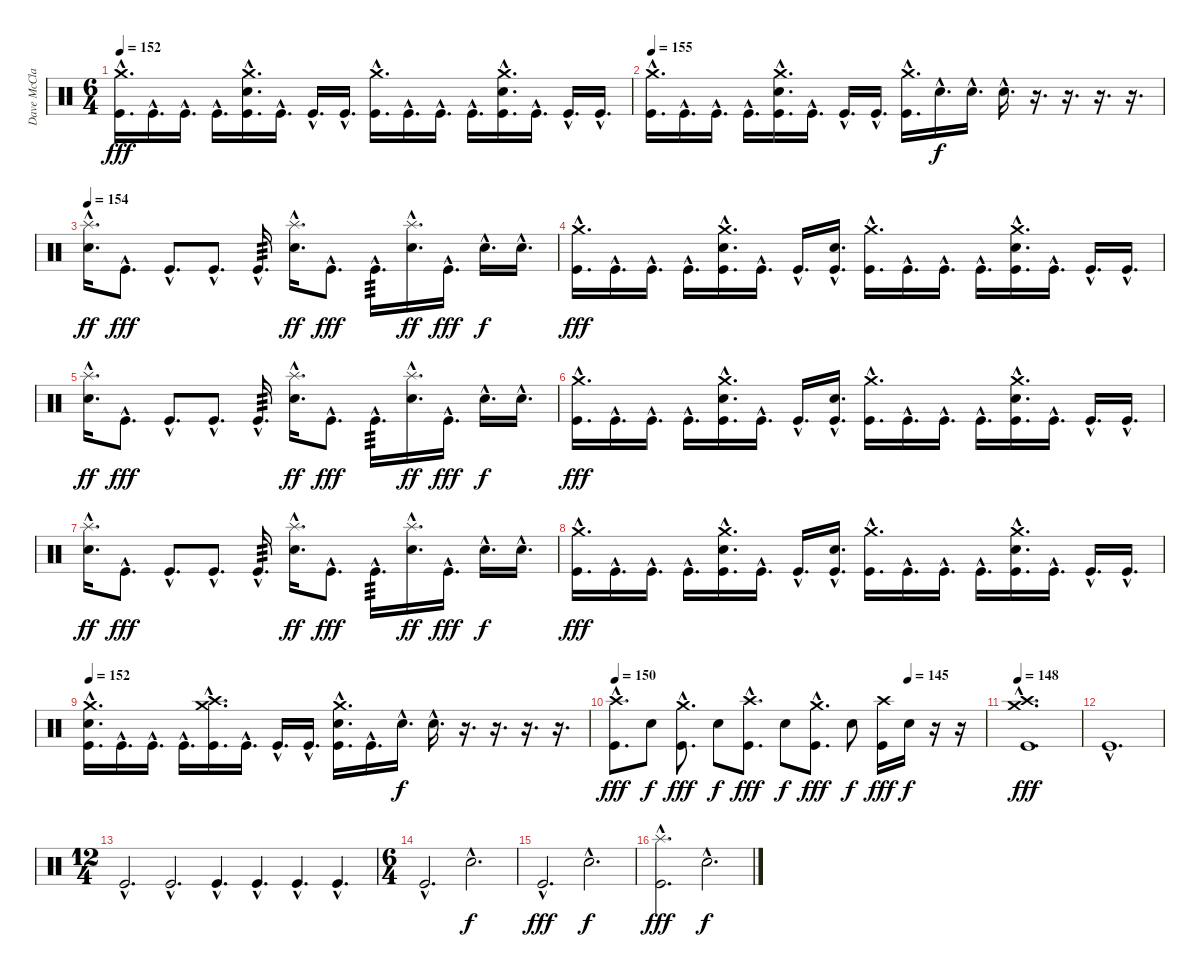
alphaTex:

\track ("Dave McClain" "Dave McCla") {instrument percussion}
\staff {score}
\articulation defaults
\ts (6 4)
\tempo 152
\clef neutral
\ks c
("Crash medium (hit)"{hac} "Kick (hit)"{hac}).16{d dy fff} "Kick (hit)"{hac}.16{d} "Kick (hit)"{hac}.16{d} "Kick (hit)"{hac}.16{d} ("Crash medium (hit)"{hac} "Electric Snare (hit)"{hac} "Kick (hit)"{hac}).16{d} "Kick (hit)"{hac}.16{d} "Kick (hit)"{hac}.16{d} "Kick (hit)"{hac}.16{d} ("Crash medium (hit)"{hac} "Kick (hit)"{hac}).16{d} "Kick (hit)"{hac}.16{d} "Kick (hit)"{hac}.16{d} "Kick (hit)"{hac}.16{d} ("Crash medium (hit)"{hac} "Electric Snare (hit)"{hac} "Kick (hit)"{hac}).16{d} "Kick (hit)"{hac}.16{d} "Kick (hit)"{hac}.16{d} "Kick (hit)"{hac}.16{d} |
\tempo 155
("Crash medium (hit)"{hac} "Kick (hit)"{hac}).16{d} "Kick (hit)"{hac}.16{d} "Kick (hit)"{hac}.16{d} "Kick (hit)"{hac}.16{d} ("Crash medium (hit)"{hac} "Electric Snare (hit)"{hac} "Kick (hit)"{hac}).16{d} "Kick (hit)"{hac}.16{d} "Kick (hit)"{hac}.16{d} "Kick (hit)"{hac}.16{d} ("Crash medium (hit)"{hac} "Kick (hit)"{hac}).16{d} "Electric Snare (hit)"{hac}.16{d dy f} "Electric Snare (hit)"{hac}.16{d} "Electric Snare (hit)"{hac}.16{d} r.16{d} r.16{d} r.16{d} r.16{d} |
\tempo 154
("Splash (hit)"{hac} "Electric Snare (hit)"{hac}).16{d dy ff} "Kick (hit)"{hac}.8{d dy fff} "Kick (hit)"{hac}.8{d} "Kick (hit)"{hac}.8{d} "Kick (hit)"{hac}.16{d tp 3} ("Splash (hit)"{hac} "Electric Snare (hit)"{hac}).16{d dy ff} "Kick (hit)"{hac}.8{d dy fff} "Kick (hit)"{hac}.16{d tp 3} ("Splash (hit)"{hac} "Electric Snare (hit)"{hac}).16{d dy ff} "Kick (hit)"{hac}.16{d dy fff} "Electric Snare (hit)"{hac}.16{d dy f} "Electric Snare (hit)"{hac}.16{d} |
("Crash medium (hit)"{hac} "Kick (hit)"{hac}).16{d dy fff} "Kick (hit)"{hac}.16{d} "Kick (hit)"{hac}.16{d} "Kick (hit)"{hac}.16{d} ("Crash medium (hit)"{hac} "Electric Snare (hit)"{hac} "Kick (hit)"{hac}).16{d} "Kick (hit)"{hac}.16{d} "Kick (hit)"{hac}.16{d} ("Electric Snare (hit)"{hac} "Kick (hit)"{hac}).16{d} ("Crash medium (hit)"{hac} "Kick (hit)"{hac}).16{d} "Kick (hit)"{hac}.16{d} "Kick (hit)"{hac}.16{d} "Kick (hit)"{hac}.16{d} ("Crash medium (hit)"{hac} "Electric Snare (hit)"{hac} "Kick (hit)"{hac}).16{d} "Kick (hit)"{hac}.16{d} "Kick (hit)"{hac}.16{d} "Kick (hit)"{hac}.16{d} |
("Splash (hit)"{hac} "Electric Snare (hit)"{hac}).16{d dy ff} "Kick (hit)"{hac}.8{d dy fff} "Kick (hit)"{hac}.8{d} "Kick (hit)"{hac}.8{d} "Kick (hit)"{hac}.16{d tp 3} ("Splash (hit)"{hac} "Electric Snare (hit)"{hac}).16{d dy ff} "Kick (hit)"{hac}.8{d dy fff} "Kick (hit)"{hac}.16{d tp 3} ("Splash (hit)"{hac} "Electric Snare (hit)"{hac}).16{d dy ff} "Kick (hit)"{hac}.16{d dy fff} "Electric Snare (hit)"{hac}.16{d dy f} "Electric Snare (hit)"{hac}.16{d} |
("Crash medium (hit)"{hac} "Kick (hit)"{hac}).16{d dy fff} "Kick (hit)"{hac}.16{d} "Kick (hit)"{hac}.16{d} "Kick (hit)"{hac}.16{d} ("Crash medium (hit)"{hac} "Electric Snare (hit)"{hac} "Kick (hit)"{hac}).16{d} "Kick (hit)"{hac}.16{d} "Kick (hit)"{hac}.16{d} ("Electric Snare (hit)"{hac} "Kick (hit)"{hac}).16{d} ("Crash medium (hit)"{hac} "Kick (hit)"{hac}).16{d} "Kick (hit)"{hac}.16{d} "Kick (hit)"{hac}.16{d} "Kick (hit)"{hac}.16{d} ("Crash medium (hit)"{hac} "Electric Snare (hit)"{hac} "Kick (hit)"{hac}).16{d} "Kick (hit)"{hac}.16{d} "Kick (hit)"{hac}.16{d} "Kick (hit)"{hac}.16{d} |
("Splash (hit)"{hac} "Electric Snare (hit)"{hac}).16{d dy ff} "Kick (hit)"{hac}.8{d dy fff} "Kick (hit)"{hac}.8{d} "Kick (hit)"{hac}.8{d} "Kick (hit)"{hac}.16{d tp 3} ("Splash (hit)"{hac} "Electric Snare (hit)"{hac}).16{d dy ff} "Kick (hit)"{hac}.8{d dy fff} "Kick (hit)"{hac}.16{d tp 3} ("Splash (hit)"{hac} "Electric Snare (hit)"{hac}).16{d dy ff} "Kick (hit)"{hac}.16{d dy fff} "Electric Snare (hit)"{hac}.16{d dy f} "Electric Snare (hit)"{hac}.16{d} |
("Crash medium (hit)"{hac} "Kick (hit)"{hac}).16{d dy fff} "Kick (hit)"{hac}.16{d} "Kick (hit)"{hac}.16{d} "Kick (hit)"{hac}.16{d} ("Crash medium (hit)"{hac} "Electric Snare (hit)"{hac} "Kick (hit)"{hac}).16{d} "Kick (hit)"{hac}.16{d} "Kick (hit)"{hac}.16{d} ("Electric Snare (hit)"{hac} "Kick (hit)"{hac}).16{d} ("Crash medium (hit)"{hac} "Kick (hit)"{hac}).16{d} "Kick (hit)"{hac}.16{d} "Kick (hit)"{hac}.16{d} "Kick (hit)"{hac}.16{d} ("Crash medium (hit)"{hac} "Electric Snare (hit)"{hac} "Kick (hit)"{hac}).16{d} "Kick (hit)"{hac}.16{d} "Kick (hit)"{hac}.16{d} "Kick (hit)"{hac}.16{d} |
\tempo 152
("Crash medium (hit)"{hac} "Electric Snare (hit)"{hac} "Kick (hit)"{hac}).16{d} "Kick (hit)"{hac}.16{d} "Kick (hit)"{hac}.16{d} "Kick (hit)"{hac}.16{d} ("Crash medium (hit)"{hac} "Crash high (hit)"{hac} "Kick (hit)"{hac}).16{d} "Kick (hit)"{hac}.16{d} "Kick (hit)"{hac}.16{d} "Kick (hit)"{hac}.16{d} ("Crash medium (hit)"{hac} "Electric Snare (hit)"{hac} "Kick (hit)"{hac}).16{d} "Kick (hit)"{hac}.16{d} "Electric Snare (hit)"{hac}.16{d dy f} "Electric Snare (hit)"{hac}.16{d} r.16{d} r.16{d} r.16{d} r.16{d} |
\tempo 150
\tempo (145 0.7916666666666666)
("Crash high (hit)"{hac} "Kick (hit)"{hac}).8{d dy fff} "Electric Snare (hit)".8{dy f} ("Crash medium (hit)"{hac} "Kick (hit)"{hac}).8{d dy fff} "Electric Snare (hit)".8{dy f} ("Crash high (hit)"{hac} "Kick (hit)"{hac}).8{d dy fff} "Electric Snare (hit)".8{dy f} ("Crash medium (hit)"{hac} "Kick (hit)"{hac}).8{d dy fff} "Electric Snare (hit)".8{dy f} ("Crash high (hit)" "Kick (hit)").16{dy fff} "Electric Snare (hit)".16{dy f} r.16 r.16 |
\tempo 148
("Crash medium (hit)"{hac} "Crash high (hit)"{hac} "Kick (hit)"{hac}).1{d dy fff} |
"Kick (hit)"{hac}.1{d} |
\ts (12 4)
"Kick (hit)"{hac}.2{d} "Kick (hit)"{hac}.2{d} "Kick (hit)"{hac}.4{d} "Kick (hit)"{hac}.4{d} "Kick (hit)"{hac}.4{d} "Kick (hit)"{hac}.4{d} |
\ts (6 4)
"Kick (hit)"{hac}.2{d} "Electric Snare (hit)"{hac}.2{d dy f} |
"Kick (hit)"{hac}.2{d dy fff} "Electric Snare (hit)"{hac}.2{d dy f} |
("Splash (hit)"{hac} "Kick (hit)"{hac}).2{d dy fff} "Electric Snare (hit)"{hac}.2{d dy f}
